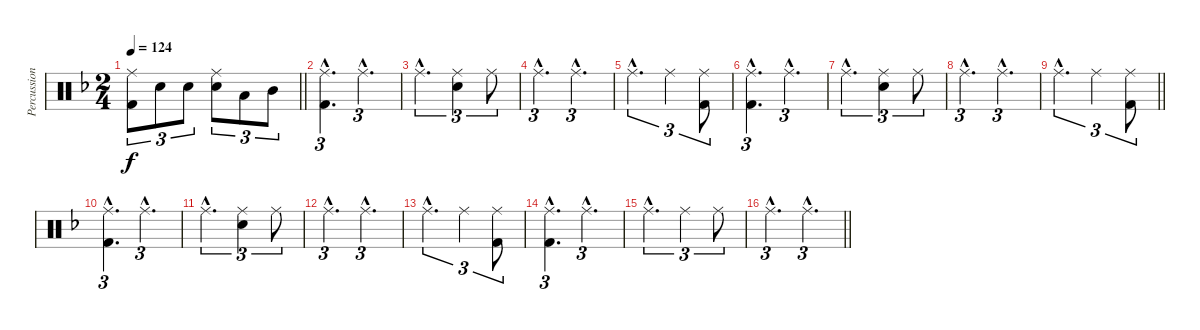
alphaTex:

\track ("Percussions" "Percussion") {instrument percussion}
\staff {score}
\articulation defaults
\ts (2 4)
\tempo 124
\clef neutral
\barLineRight lightlight
\ks dminor
("Ride (middle)" "Kick (hit) 2").8{tu (3 2) dy f} "Snare (hit) 2".8{tu (3 2)} "Snare (hit) 2".8{tu (3 2)} ("Ride (middle)" "Snare (hit) 2").8{tu (3 2)} "Low Tom (hit)".8{tu (3 2)} "Mid Tom (hit)".8{tu (3 2)} |
("Ride (middle)"{hac} "Kick (hit) 2"{hac}).4{d tu (3 2)} "Ride (middle)"{hac}.4{d tu (3 2)} |
"Ride (middle)"{hac}.4{d tu (3 2)} ("Ride (middle)" "Snare (hit) 2").4{tu (3 2)} "Ride (middle)".8{tu (3 2)} |
"Ride (middle)"{hac}.4{d tu (3 2)} "Ride (middle)"{hac}.4{d tu (3 2)} |
"Ride (middle)"{hac}.4{d tu (3 2)} "Ride (middle)".4{tu (3 2)} ("Ride (middle)" "Kick (hit) 2").8{tu (3 2)} |
("Ride (middle)"{hac} "Kick (hit) 2"{hac}).4{d tu (3 2)} "Ride (middle)"{hac}.4{d tu (3 2)} |
"Ride (middle)"{hac}.4{d tu (3 2)} ("Ride (middle)" "Snare (hit) 2").4{tu (3 2)} "Ride (middle)".8{tu (3 2)} |
"Ride (middle)"{hac}.4{d tu (3 2)} "Ride (middle)"{hac}.4{d tu (3 2)} |
\barLineRight lightlight "Ride (middle)"{hac}.4{d tu (3 2)} "Ride (middle)".4{tu (3 2)}
("Ride (middle)" "Kick (hit) 2").8{tu (3 2)} |
("Ride (middle)"{hac} "Kick (hit) 2"{hac}).4{d tu (3 2)} "Ride (middle)"{hac}.4{d tu (3 2)} |
"Ride (middle)"{hac}.4{d tu (3 2)} ("Ride (middle)" "Snare (hit) 2").4{tu (3 2)} "Ride (middle)".8{tu (3 2)} |
"Ride (middle)"{hac}.4{d tu (3 2)} "Ride (middle)"{hac}.4{d tu (3 2)} |
"Ride (middle)"{hac}.4{d tu (3 2)} "Ride (middle)".4{tu (3 2)} ("Ride (middle)" "Kick (hit) 2").8{tu (3 2)} |
("Ride (middle)"{hac} "Kick (hit) 2"{hac}).4{d tu (3 2)} "Ride (middle)"{hac}.4{d tu (3 2)} |
"Ride (middle)"{hac}.4{d tu (3 2)} "Ride (middle)".4{tu (3 2)} "Ride (middle)".8{tu (3 2)} |
\barLineRight lightlight "Ride (middle)"{hac}.4{d tu (3 2)} "Ride (middle)"{hac}.4{d tu (3 2)}
